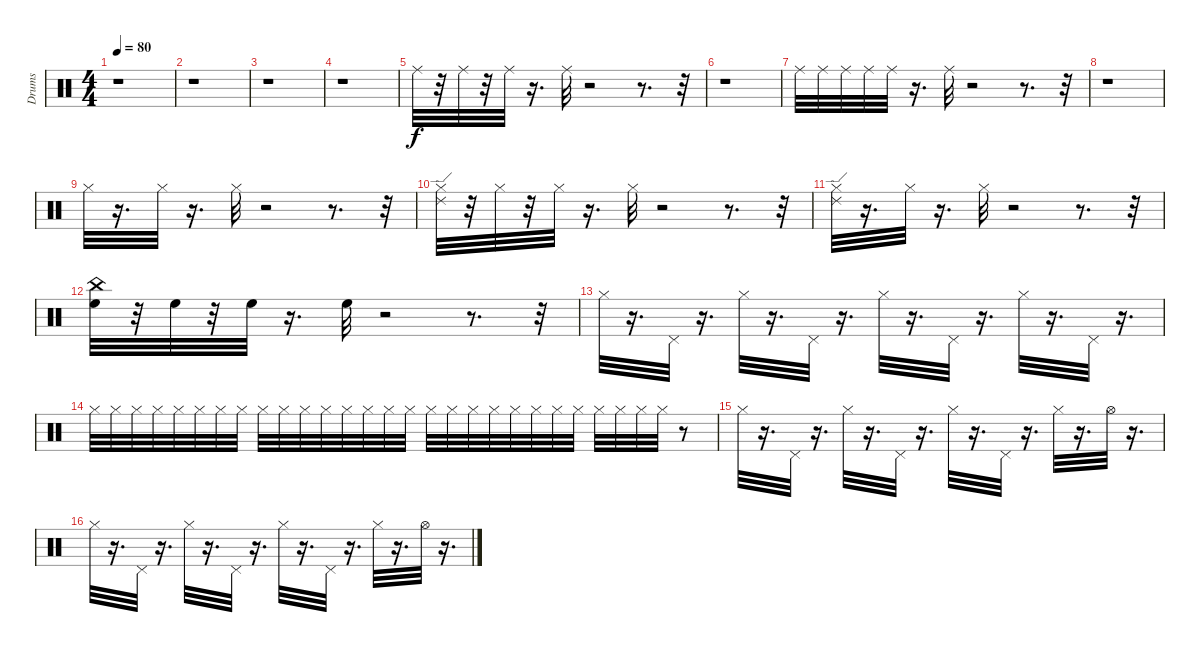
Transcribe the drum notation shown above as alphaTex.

\track ("Drums" "Drums") {instrument percussion}
\staff {score}
\articulation defaults
\ts (4 4)
\tempo 80
\clef neutral
\ks c
r.1{dy f} |
r.1 |
r.1 |
r.1 |
"Ride (middle)".32 r.32 "Ride (middle)".32 r.32 "Ride (middle)".32 r.16{d} "Ride (middle)".32 r.2 r.8{d} r.32 |
r.1 |
"Ride (middle)".32 "Ride (middle)".32 "Ride (middle)".32 "Ride (middle)".32 "Ride (middle)".32 r.16{d} "Ride (middle)".32 r.2 r.8{d} r.32 |
r.1 |
"Hi-Hat (closed)".32 r.16{d} "Hi-Hat (closed)".32 r.16{d} "Hi-Hat (closed)".32 r.2 r.8{d} r.32 |
("Ride (edge) 2" "Hi-Hat (closed)").32 r.32 "Hi-Hat (closed)".32 r.32 "Hi-Hat (closed)".32 r.16{d} "Hi-Hat (closed)".32 r.2 r.8{d} r.32 |
("Ride (edge) 2" "Hi-Hat (closed)").32 r.16{d} "Hi-Hat (closed)".32 r.16{d} "Hi-Hat (closed)".32 r.2 r.8{d} r.32 |
("High Floor Tom (hit)" "China (hit)").32 r.32 "High Floor Tom (hit)".32 r.32 "High Floor Tom (hit)".32 r.16{d} "High Floor Tom (hit)".32 r.2 r.8{d} r.32 |
"Hi-Hat (closed)".32 r.16{d} "Pedal Hi-Hat (hit)".32 r.16{d} "Hi-Hat (closed)".32 r.16{d} "Pedal Hi-Hat (hit)".32 r.16{d} "Hi-Hat (closed)".32 r.16{d} "Pedal Hi-Hat (hit)".32 r.16{d} "Hi-Hat (closed)".32 r.16{d} "Pedal Hi-Hat (hit)".32 r.16{d} |
"Hi-Hat (closed)".32 "Hi-Hat (closed)".32 "Hi-Hat (closed)".32 "Hi-Hat (closed)".32 "Hi-Hat (closed)".32 "Hi-Hat (closed)".32 "Hi-Hat (closed)".32 "Hi-Hat (closed)".32 "Hi-Hat (closed)".32 "Hi-Hat (closed)".32 "Hi-Hat (closed)".32 "Hi-Hat (closed)".32 "Hi-Hat (closed)".32 "Hi-Hat (closed)".32 "Hi-Hat (closed)".32 "Hi-Hat (closed)".32 "Hi-Hat (closed)".32 "Hi-Hat (closed)".32 "Hi-Hat (closed)".32 "Hi-Hat (closed)".32 "Hi-Hat (closed)".32 "Hi-Hat (closed)".32 "Hi-Hat (closed)".32 "Hi-Hat (closed)".32 "Hi-Hat (closed)".32 "Hi-Hat (closed)".32 "Hi-Hat (closed)".32 "Hi-Hat (closed)".32 r.8 |
"Hi-Hat (closed)".32 r.16{d} "Pedal Hi-Hat (hit)".32 r.16{d} "Hi-Hat (closed)".32 r.16{d} "Pedal Hi-Hat (hit)".32 r.16{d} "Hi-Hat (closed)".32 r.16{d} "Pedal Hi-Hat (hit)".32 r.16{d} "Hi-Hat (closed)".32 r.16{d} "Hi-Hat (open)".32 r.16{d} |
"Hi-Hat (closed)".32 r.16{d} "Pedal Hi-Hat (hit)".32 r.16{d} "Hi-Hat (closed)".32 r.16{d} "Pedal Hi-Hat (hit)".32 r.16{d} "Hi-Hat (closed)".32 r.16{d} "Pedal Hi-Hat (hit)".32 r.16{d} "Hi-Hat (closed)".32 r.16{d} "Hi-Hat (open)".32 r.16{d}
